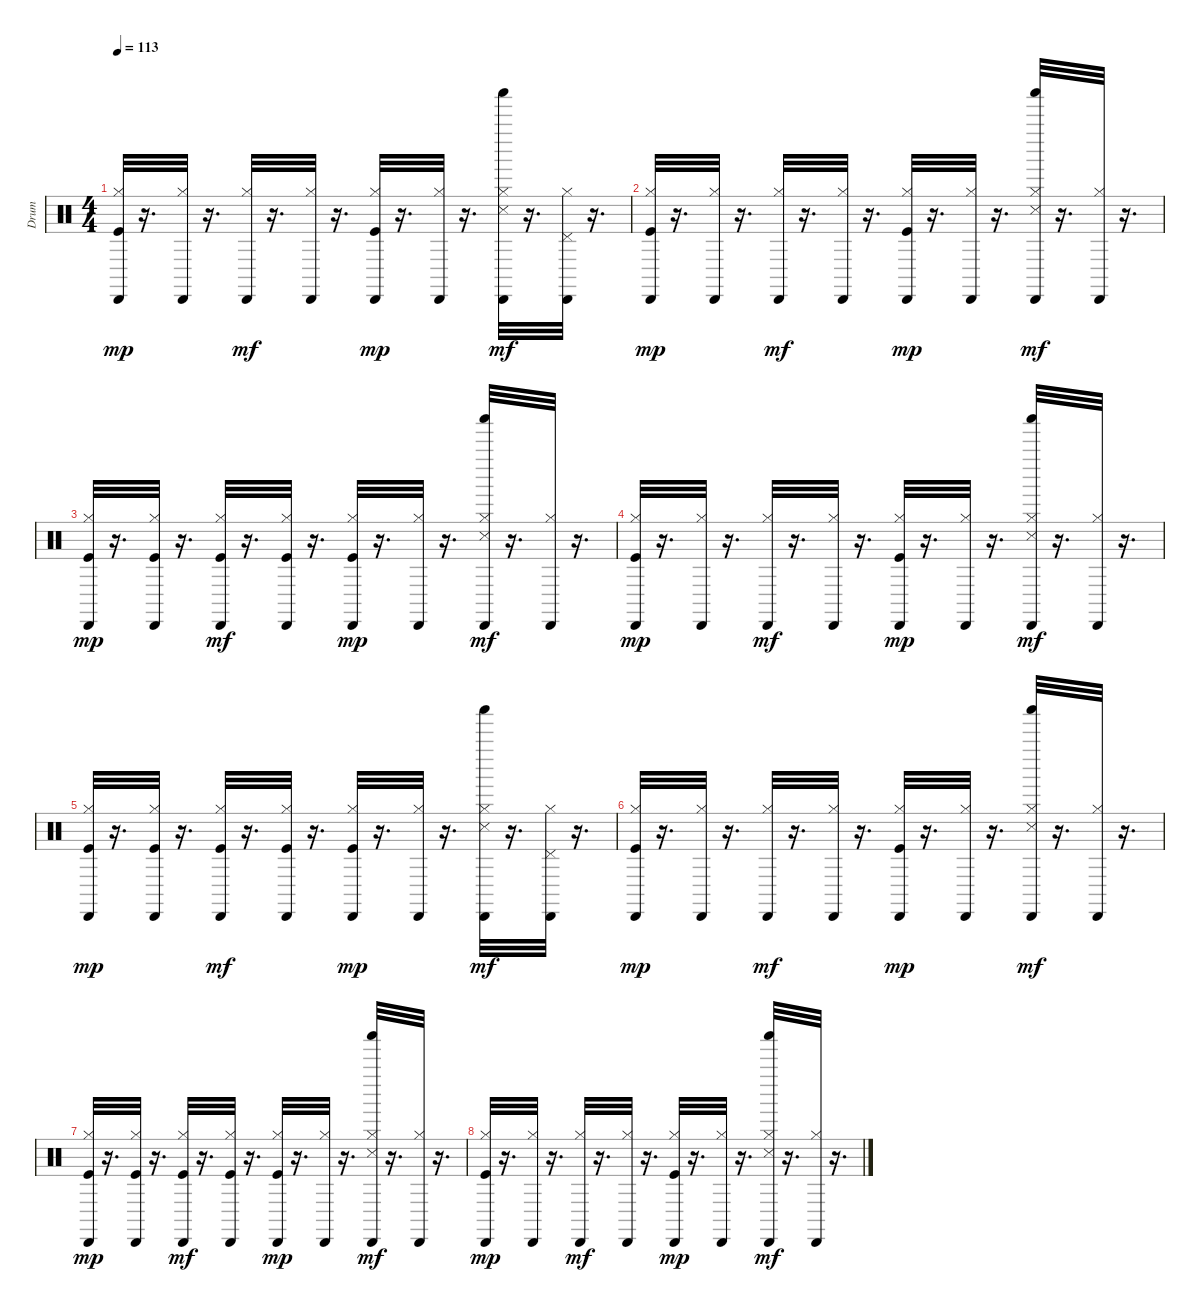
\track ("Drum" "Drum") {instrument percussion}
\staff {score}
\articulation defaults
\ts (4 4)
\tempo 113
\clef neutral
\ks c
("Hi-Hat (closed)" "Kick (hit)" "Cabasa (hit)").32{dy mp} r.16{d} ("Hi-Hat (closed)" "Cabasa (hit)").32 r.16{d} ("Hi-Hat (closed)" "Cabasa (hit)").32{dy mf} r.16{d} ("Hi-Hat (closed)" "Cabasa (hit)").32 r.16{d} ("Hi-Hat (closed)" "Kick (hit)" "Cabasa (hit)").32{dy mp} r.16{d} ("Hi-Hat (closed)" "Cabasa (hit)").32 r.16{d} ("Hi-Hat (closed)" "Shaker (hit)" "Snare (side stick) 3" "Cabasa (hit)").32{dy mf} r.16{d} ("Hi-Hat (closed)" "Pedal Hi-Hat (hit)" "Cabasa (hit)").32 r.16{d} |
("Hi-Hat (closed)" "Kick (hit)" "Cabasa (hit)").32{dy mp} r.16{d} ("Hi-Hat (closed)" "Cabasa (hit)").32 r.16{d} ("Hi-Hat (closed)" "Cabasa (hit)").32{dy mf} r.16{d} ("Hi-Hat (closed)" "Cabasa (hit)").32 r.16{d} ("Hi-Hat (closed)" "Kick (hit)" "Cabasa (hit)").32{dy mp} r.16{d} ("Hi-Hat (closed)" "Cabasa (hit)").32 r.16{d} ("Hi-Hat (closed)" "Shaker (hit)" "Snare (side stick) 3" "Cabasa (hit)").32{dy mf} r.16{d} ("Hi-Hat (closed)" "Cabasa (hit)").32 r.16{d} |
("Hi-Hat (closed)" "Kick (hit)" "Cabasa (hit)").32{dy mp} r.16{d} ("Hi-Hat (closed)" "Kick (hit)" "Cabasa (hit)").32 r.16{d} ("Hi-Hat (closed)" "Kick (hit)" "Cabasa (hit)").32{dy mf} r.16{d} ("Hi-Hat (closed)" "Kick (hit)" "Cabasa (hit)").32 r.16{d} ("Hi-Hat (closed)" "Kick (hit)" "Cabasa (hit)").32{dy mp} r.16{d} ("Hi-Hat (closed)" "Cabasa (hit)").32 r.16{d} ("Hi-Hat (closed)" "Shaker (hit)" "Snare (side stick) 3" "Cabasa (hit)").32{dy mf} r.16{d} ("Hi-Hat (closed)" "Cabasa (hit)").32 r.16{d} |
("Hi-Hat (closed)" "Kick (hit)" "Cabasa (hit)").32{dy mp} r.16{d} ("Hi-Hat (closed)" "Cabasa (hit)").32 r.16{d} ("Hi-Hat (closed)" "Cabasa (hit)").32{dy mf} r.16{d} ("Hi-Hat (closed)" "Cabasa (hit)").32 r.16{d} ("Hi-Hat (closed)" "Kick (hit)" "Cabasa (hit)").32{dy mp} r.16{d} ("Hi-Hat (closed)" "Cabasa (hit)").32 r.16{d} ("Hi-Hat (closed)" "Shaker (hit)" "Snare (side stick) 3" "Cabasa (hit)").32{dy mf} r.16{d} ("Hi-Hat (closed)" "Cabasa (hit)").32 r.16{d} |
("Hi-Hat (closed)" "Kick (hit)" "Cabasa (hit)").32{dy mp} r.16{d} ("Hi-Hat (closed)" "Kick (hit)" "Cabasa (hit)").32 r.16{d} ("Hi-Hat (closed)" "Kick (hit)" "Cabasa (hit)").32{dy mf} r.16{d} ("Hi-Hat (closed)" "Kick (hit)" "Cabasa (hit)").32 r.16{d} ("Hi-Hat (closed)" "Kick (hit)" "Cabasa (hit)").32{dy mp} r.16{d} ("Hi-Hat (closed)" "Cabasa (hit)").32 r.16{d} ("Hi-Hat (closed)" "Shaker (hit)" "Snare (side stick) 3" "Cabasa (hit)").32{dy mf} r.16{d} ("Hi-Hat (closed)" "Pedal Hi-Hat (hit)" "Cabasa (hit)").32 r.16{d} |
("Hi-Hat (closed)" "Kick (hit)" "Cabasa (hit)").32{dy mp} r.16{d} ("Hi-Hat (closed)" "Cabasa (hit)").32 r.16{d} ("Hi-Hat (closed)" "Cabasa (hit)").32{dy mf} r.16{d} ("Hi-Hat (closed)" "Cabasa (hit)").32 r.16{d} ("Hi-Hat (closed)" "Kick (hit)" "Cabasa (hit)").32{dy mp} r.16{d} ("Hi-Hat (closed)" "Cabasa (hit)").32 r.16{d} ("Hi-Hat (closed)" "Shaker (hit)" "Snare (side stick) 3" "Cabasa (hit)").32{dy mf} r.16{d} ("Hi-Hat (closed)" "Cabasa (hit)").32 r.16{d} |
("Hi-Hat (closed)" "Kick (hit)" "Cabasa (hit)").32{dy mp} r.16{d} ("Hi-Hat (closed)" "Kick (hit)" "Cabasa (hit)").32 r.16{d} ("Hi-Hat (closed)" "Kick (hit)" "Cabasa (hit)").32{dy mf} r.16{d} ("Hi-Hat (closed)" "Kick (hit)" "Cabasa (hit)").32 r.16{d} ("Hi-Hat (closed)" "Kick (hit)" "Cabasa (hit)").32{dy mp} r.16{d} ("Hi-Hat (closed)" "Cabasa (hit)").32 r.16{d} ("Hi-Hat (closed)" "Shaker (hit)" "Snare (side stick) 3" "Cabasa (hit)").32{dy mf} r.16{d} ("Hi-Hat (closed)" "Cabasa (hit)").32 r.16{d} |
("Hi-Hat (closed)" "Kick (hit)" "Cabasa (hit)").32{dy mp} r.16{d} ("Hi-Hat (closed)" "Cabasa (hit)").32 r.16{d} ("Hi-Hat (closed)" "Cabasa (hit)").32{dy mf} r.16{d} ("Hi-Hat (closed)" "Cabasa (hit)").32 r.16{d} ("Hi-Hat (closed)" "Kick (hit)" "Cabasa (hit)").32{dy mp} r.16{d} ("Hi-Hat (closed)" "Cabasa (hit)").32 r.16{d} ("Hi-Hat (closed)" "Shaker (hit)" "Snare (side stick) 3" "Cabasa (hit)").32{dy mf} r.16{d} ("Hi-Hat (closed)" "Cabasa (hit)").32 r.16{d}
